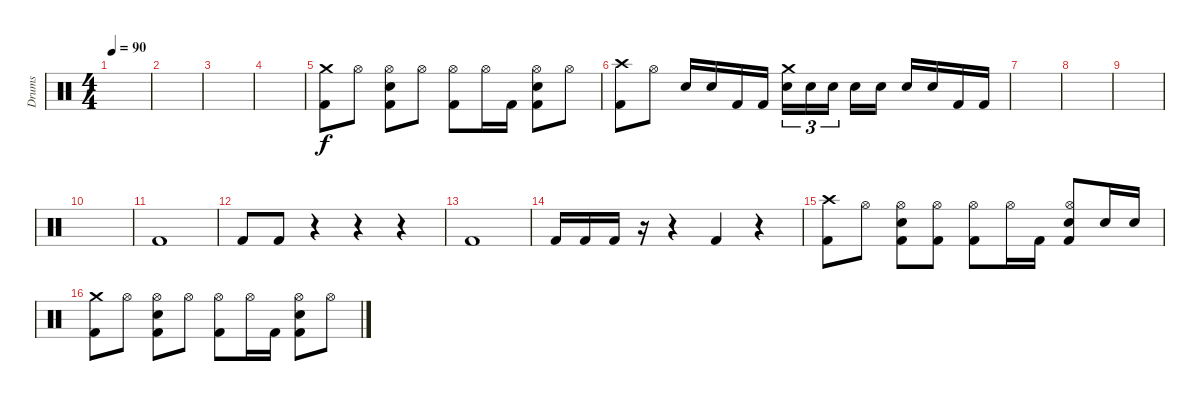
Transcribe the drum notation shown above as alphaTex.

\track ("Drums" "Drums") {instrument percussion}
\staff {score}
\articulation defaults
\ts (4 4)
\tempo 90
\clef neutral
\ks c
|
|
|
|
("Crash medium (hit)" "Kick (hit) 2").8 "Hi-Hat (open)".8 ("Hi-Hat (open)" "Electric Snare (hit)" "Kick (hit) 2").8 "Hi-Hat (open)".8 ("Hi-Hat (open)" "Kick (hit) 2").8 "Hi-Hat (open)".16 "Kick (hit) 2".16 ("Hi-Hat (open)" "Electric Snare (hit)" "Kick (hit) 2").8 "Hi-Hat (open)".8 |
("Crash high (hit)" "Kick (hit) 2").8 "Hi-Hat (open)".8 "Electric Snare (hit)".16 "Electric Snare (hit)".16 "Kick (hit) 2".16 "Kick (hit) 2".16 ("Crash medium (hit)" "Electric Snare (hit)").16{tu (3 2)} "Electric Snare (hit)".16{tu (3 2)} "Electric Snare (hit)".16{tu (3 2) beam splitsecondary} "Electric Snare (hit)".16 "Electric Snare (hit)".16 "Electric Snare (hit)".16 "Electric Snare (hit)".16 "Kick (hit) 2".16 "Kick (hit) 2".16 |
|
|
|
|
"Kick (hit) 2".1 |
"Kick (hit) 2".8 "Kick (hit) 2".8 r.4 r.4 r.4 |
"Kick (hit) 2".1 |
"Kick (hit) 2".16 "Kick (hit) 2".16 "Kick (hit) 2".16 r.16 r.4 "Kick (hit) 2".4 r.4 |
("Crash high (hit)" "Kick (hit) 2").8 "Hi-Hat (open)".8 ("Hi-Hat (open)" "Electric Snare (hit)" "Kick (hit) 2").8 ("Hi-Hat (open)" "Kick (hit) 2").8 ("Hi-Hat (open)" "Kick (hit) 2").8 "Hi-Hat (open)".16 "Kick (hit) 2".16 ("Hi-Hat (open)" "Electric Snare (hit)" "Kick (hit) 2").8 "Electric Snare (hit)".16 "Electric Snare (hit)".16 |
("Crash medium (hit)" "Kick (hit) 2").8 "Hi-Hat (open)".8 ("Hi-Hat (open)" "Electric Snare (hit)" "Kick (hit) 2").8 "Hi-Hat (open)".8 ("Hi-Hat (open)" "Kick (hit) 2").8 "Hi-Hat (open)".16 "Kick (hit) 2".16 ("Hi-Hat (open)" "Electric Snare (hit)" "Kick (hit) 2").8 "Hi-Hat (open)".8
